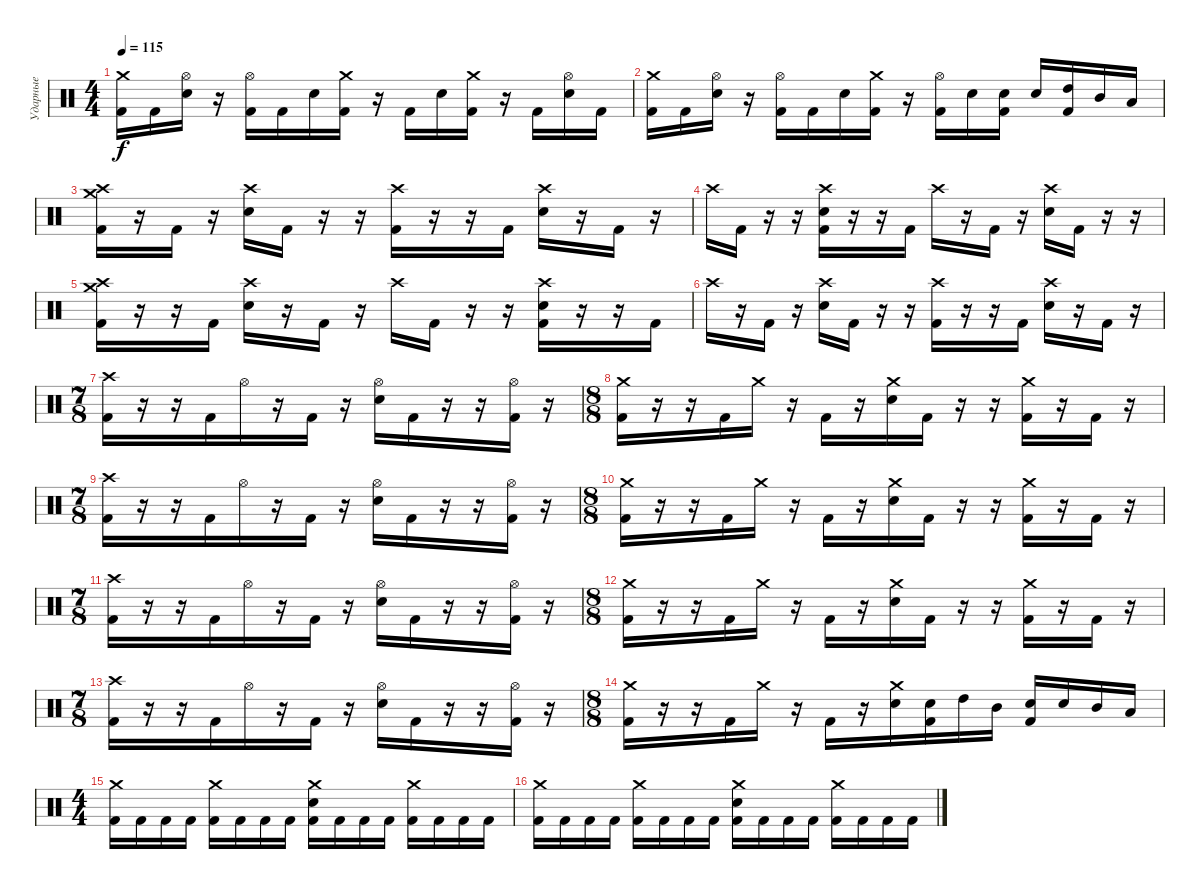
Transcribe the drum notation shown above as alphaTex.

\track ("Ударные" "Ударные") {instrument percussion}
\staff {score}
\articulation defaults
\ts (4 4)
\tempo 115
\clef neutral
\ks c
("Crash medium (hit)" "Kick (hit) 2").16{dy f} "Kick (hit) 2".16 ("Hi-Hat (open)" "Electric Snare (hit)").16 r.16 ("Hi-Hat (open)" "Kick (hit) 2").16 "Kick (hit) 2".16 "Electric Snare (hit)".16 ("Crash medium (hit)" "Kick (hit) 2").16 r.16 "Kick (hit) 2".16 "Electric Snare (hit)".16 ("Crash medium (hit)" "Kick (hit) 2").16 r.16 "Kick (hit) 2".16 ("Hi-Hat (open)" "Electric Snare (hit)").16 "Kick (hit) 2".16 |
("Crash medium (hit)" "Kick (hit) 2").16 "Kick (hit) 2".16 ("Hi-Hat (open)" "Electric Snare (hit)").16 r.16 ("Hi-Hat (open)" "Kick (hit) 2").16 "Kick (hit) 2".16 "Electric Snare (hit)".16 ("Crash medium (hit)" "Kick (hit) 2").16 r.16 ("Hi-Hat (open)" "Kick (hit) 2").16 "Electric Snare (hit)".16 ("Electric Snare (hit)" "Kick (hit) 2").16 "Electric Snare (hit)".16 ("High Tom (hit)" "Kick (hit) 2").16 "Mid Tom (hit)".16 "Low Tom (hit)".16 |
("Crash medium (hit)" "Crash high (hit)" "Kick (hit) 2").16 r.16 "Kick (hit) 2".16 r.16 ("Crash high (hit)" "Electric Snare (hit)").16 "Kick (hit) 2".16 r.16 r.16 ("Crash high (hit)" "Kick (hit) 2").16 r.16 r.16 "Kick (hit) 2".16 ("Crash high (hit)" "Electric Snare (hit)").16 r.16 "Kick (hit) 2".16 r.16 |
"Crash high (hit)".16 "Kick (hit) 2".16 r.16 r.16 ("Crash high (hit)" "Electric Snare (hit)" "Kick (hit) 2").16 r.16 r.16 "Kick (hit) 2".16 "Crash high (hit)".16 r.16 "Kick (hit) 2".16 r.16 ("Crash high (hit)" "Electric Snare (hit)").16 "Kick (hit) 2".16 r.16 r.16 |
("Crash medium (hit)" "Crash high (hit)" "Kick (hit) 2").16 r.16 r.16 "Kick (hit) 2".16 ("Crash high (hit)" "Electric Snare (hit)").16 r.16 "Kick (hit) 2".16 r.16 "Crash high (hit)".16 "Kick (hit) 2".16 r.16 r.16 ("Crash high (hit)" "Electric Snare (hit)" "Kick (hit) 2").16 r.16 r.16 "Kick (hit) 2".16 |
"Crash high (hit)".16 r.16 "Kick (hit) 2".16 r.16 ("Crash high (hit)" "Electric Snare (hit)").16 "Kick (hit) 2".16 r.16 r.16 ("Crash high (hit)" "Kick (hit) 2").16 r.16 r.16 "Kick (hit) 2".16 ("Crash high (hit)" "Electric Snare (hit)").16 r.16 "Kick (hit) 2".16 r.16 |
\ts (7 8)
("Crash high (hit)" "Kick (hit) 2").16 r.16 r.16 "Kick (hit) 2".16 "Hi-Hat (open)".16 r.16 "Kick (hit) 2".16 r.16 ("Hi-Hat (open)" "Electric Snare (hit)").16 "Kick (hit) 2".16 r.16 r.16 ("Hi-Hat (open)" "Kick (hit) 2").16 r.16 |
\ts (8 8)
("Crash medium (hit)" "Kick (hit) 2").16 r.16 r.16 "Kick (hit) 2".16 "Crash medium (hit)".16 r.16 "Kick (hit) 2".16 r.16 ("Crash medium (hit)" "Electric Snare (hit)").16 "Kick (hit) 2".16 r.16 r.16 ("Crash medium (hit)" "Kick (hit) 2").16 r.16 "Kick (hit) 2".16 r.16 |
\ts (7 8)
("Crash high (hit)" "Kick (hit) 2").16 r.16 r.16 "Kick (hit) 2".16 "Hi-Hat (open)".16 r.16 "Kick (hit) 2".16 r.16 ("Hi-Hat (open)" "Electric Snare (hit)").16 "Kick (hit) 2".16 r.16 r.16 ("Hi-Hat (open)" "Kick (hit) 2").16 r.16 |
\ts (8 8)
("Crash medium (hit)" "Kick (hit) 2").16 r.16 r.16 "Kick (hit) 2".16 "Crash medium (hit)".16 r.16 "Kick (hit) 2".16 r.16 ("Crash medium (hit)" "Electric Snare (hit)").16 "Kick (hit) 2".16 r.16 r.16 ("Crash medium (hit)" "Kick (hit) 2").16 r.16 "Kick (hit) 2".16 r.16 |
\ts (7 8)
("Crash high (hit)" "Kick (hit) 2").16 r.16 r.16 "Kick (hit) 2".16 "Hi-Hat (open)".16 r.16 "Kick (hit) 2".16 r.16 ("Hi-Hat (open)" "Electric Snare (hit)").16 "Kick (hit) 2".16 r.16 r.16 ("Hi-Hat (open)" "Kick (hit) 2").16 r.16 |
\ts (8 8)
("Crash medium (hit)" "Kick (hit) 2").16 r.16 r.16 "Kick (hit) 2".16 "Crash medium (hit)".16 r.16 "Kick (hit) 2".16 r.16 ("Crash medium (hit)" "Electric Snare (hit)").16 "Kick (hit) 2".16 r.16 r.16 ("Crash medium (hit)" "Kick (hit) 2").16 r.16 "Kick (hit) 2".16 r.16 |
\ts (7 8)
("Crash high (hit)" "Kick (hit) 2").16 r.16 r.16 "Kick (hit) 2".16 "Hi-Hat (open)".16 r.16 "Kick (hit) 2".16 r.16 ("Hi-Hat (open)" "Electric Snare (hit)").16 "Kick (hit) 2".16 r.16 r.16 ("Hi-Hat (open)" "Kick (hit) 2").16 r.16 |
\ts (8 8)
("Crash medium (hit)" "Kick (hit) 2").16 r.16 r.16 "Kick (hit) 2".16 "Crash medium (hit)".16 r.16 "Kick (hit) 2".16 r.16 ("Crash medium (hit)" "Electric Snare (hit)").16 ("Electric Snare (hit)" "Kick (hit) 2").16 "High Tom (hit)".16 "Mid Tom (hit)".16 ("Electric Snare (hit)" "Kick (hit) 2").16 "Electric Snare (hit)".16 "Mid Tom (hit)".16 "Low Tom (hit)".16 |
\ts (4 4)
("Crash medium (hit)" "Kick (hit) 2").16 "Kick (hit) 2".16 "Kick (hit) 2".16 "Kick (hit) 2".16 ("Crash medium (hit)" "Kick (hit) 2").16 "Kick (hit) 2".16 "Kick (hit) 2".16 "Kick (hit) 2".16 ("Crash medium (hit)" "Electric Snare (hit)" "Kick (hit) 2").16 "Kick (hit) 2".16 "Kick (hit) 2".16 "Kick (hit) 2".16 ("Crash medium (hit)" "Kick (hit) 2").16 "Kick (hit) 2".16 "Kick (hit) 2".16 "Kick (hit) 2".16 |
("Crash medium (hit)" "Kick (hit) 2").16 "Kick (hit) 2".16 "Kick (hit) 2".16 "Kick (hit) 2".16 ("Crash medium (hit)" "Kick (hit) 2").16 "Kick (hit) 2".16 "Kick (hit) 2".16 "Kick (hit) 2".16 ("Crash medium (hit)" "Electric Snare (hit)" "Kick (hit) 2").16 "Kick (hit) 2".16 "Kick (hit) 2".16 "Kick (hit) 2".16 ("Crash medium (hit)" "Kick (hit) 2").16 "Kick (hit) 2".16 "Kick (hit) 2".16 "Kick (hit) 2".16
